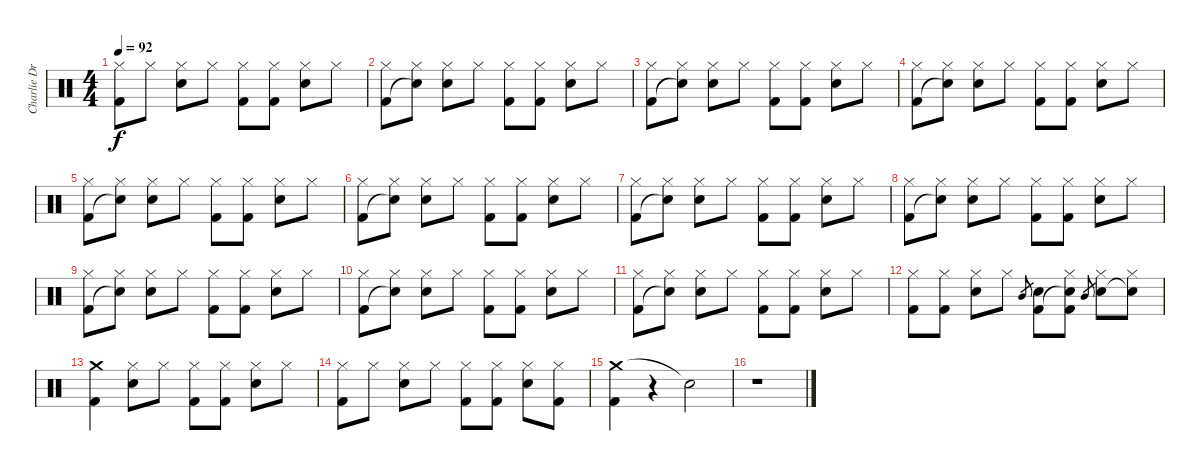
\track ("Charlie Drums" "Charlie Dr") {instrument percussion}
\staff {score}
\articulation defaults
\ts (4 4)
\tempo 92
\clef neutral
\ks c
("Hi-Hat (closed)" "Kick (hit) 2").8{dy f} "Hi-Hat (closed)".8 ("Hi-Hat (closed)" "Snare (hit) 2").8 "Hi-Hat (closed)".8 ("Hi-Hat (closed)" "Kick (hit) 2").8 ("Hi-Hat (closed)" "Kick (hit) 2").8 ("Hi-Hat (closed)" "Snare (hit) 2").8 "Hi-Hat (closed)".8 |
("Hi-Hat (closed)" "Kick (hit) 2").8 ("Hi-Hat (closed)" "Snare (hit)"{t}).8 ("Hi-Hat (closed)" "Snare (hit) 2").8 "Hi-Hat (closed)".8 ("Hi-Hat (closed)" "Kick (hit) 2").8 ("Hi-Hat (closed)" "Kick (hit) 2").8 ("Hi-Hat (closed)" "Snare (hit) 2").8 "Hi-Hat (closed)".8 |
("Hi-Hat (closed)" "Kick (hit) 2").8 ("Hi-Hat (closed)" "Snare (hit)"{t}).8 ("Hi-Hat (closed)" "Snare (hit) 2").8 "Hi-Hat (closed)".8 ("Hi-Hat (closed)" "Kick (hit) 2").8 ("Hi-Hat (closed)" "Kick (hit) 2").8 ("Hi-Hat (closed)" "Snare (hit) 2").8 "Hi-Hat (closed)".8 |
("Hi-Hat (closed)" "Kick (hit) 2").8 ("Hi-Hat (closed)" "Snare (hit)"{t}).8 ("Hi-Hat (closed)" "Snare (hit) 2").8 "Hi-Hat (closed)".8 ("Hi-Hat (closed)" "Kick (hit) 2").8 ("Hi-Hat (closed)" "Kick (hit) 2").8 ("Hi-Hat (closed)" "Snare (hit) 2").8 "Hi-Hat (closed)".8 |
("Hi-Hat (closed)" "Kick (hit) 2").8 ("Hi-Hat (closed)" "Snare (hit)"{t}).8 ("Hi-Hat (closed)" "Snare (hit) 2").8 "Hi-Hat (closed)".8 ("Hi-Hat (closed)" "Kick (hit) 2").8 ("Hi-Hat (closed)" "Kick (hit) 2").8 ("Hi-Hat (closed)" "Snare (hit) 2").8 "Hi-Hat (closed)".8 |
("Hi-Hat (closed)" "Kick (hit) 2").8 ("Hi-Hat (closed)" "Snare (hit)"{t}).8 ("Hi-Hat (closed)" "Snare (hit) 2").8 "Hi-Hat (closed)".8 ("Hi-Hat (closed)" "Kick (hit) 2").8 ("Hi-Hat (closed)" "Kick (hit) 2").8 ("Hi-Hat (closed)" "Snare (hit) 2").8 "Hi-Hat (closed)".8 |
("Hi-Hat (closed)" "Kick (hit) 2").8 ("Hi-Hat (closed)" "Snare (hit)"{t}).8 ("Hi-Hat (closed)" "Snare (hit) 2").8 "Hi-Hat (closed)".8 ("Hi-Hat (closed)" "Kick (hit) 2").8 ("Hi-Hat (closed)" "Kick (hit) 2").8 ("Hi-Hat (closed)" "Snare (hit) 2").8 "Hi-Hat (closed)".8 |
("Hi-Hat (closed)" "Kick (hit) 2").8 ("Hi-Hat (closed)" "Snare (hit)"{t}).8 ("Hi-Hat (closed)" "Snare (hit) 2").8 "Hi-Hat (closed)".8 ("Hi-Hat (closed)" "Kick (hit) 2").8 ("Hi-Hat (closed)" "Kick (hit) 2").8 ("Hi-Hat (closed)" "Snare (hit) 2").8 "Hi-Hat (closed)".8 |
("Hi-Hat (closed)" "Kick (hit) 2").8 ("Hi-Hat (closed)" "Snare (hit)"{t}).8 ("Hi-Hat (closed)" "Snare (hit) 2").8 "Hi-Hat (closed)".8 ("Hi-Hat (closed)" "Kick (hit) 2").8 ("Hi-Hat (closed)" "Kick (hit) 2").8 ("Hi-Hat (closed)" "Snare (hit) 2").8 "Hi-Hat (closed)".8 |
("Hi-Hat (closed)" "Kick (hit) 2").8 ("Hi-Hat (closed)" "Snare (hit)"{t}).8 ("Hi-Hat (closed)" "Snare (hit) 2").8 "Hi-Hat (closed)".8 ("Hi-Hat (closed)" "Kick (hit) 2").8 ("Hi-Hat (closed)" "Kick (hit) 2").8 ("Hi-Hat (closed)" "Snare (hit) 2").8 "Hi-Hat (closed)".8 |
("Hi-Hat (closed)" "Kick (hit) 2").8 ("Hi-Hat (closed)" "Snare (hit)"{t}).8 ("Hi-Hat (closed)" "Snare (hit) 2").8 "Hi-Hat (closed)".8 ("Hi-Hat (closed)" "Kick (hit) 2").8 ("Hi-Hat (closed)" "Kick (hit) 2").8 ("Hi-Hat (closed)" "Snare (hit) 2").8 "Hi-Hat (closed)".8 |
("Hi-Hat (closed)" "Kick (hit) 2").8 ("Hi-Hat (closed)" "Kick (hit) 2").8 ("Hi-Hat (closed)" "Snare (hit) 2").8 "Hi-Hat (closed)".8 "Mid Tom (hit)".8{gr} ("Snare (hit) 2" "Kick (hit) 2").8 ("Hi-Hat (closed)" "Snare (hit)"{t} "Kick (hit) 2").8 "Mid Tom (hit)".8{gr} ("Hi-Hat (closed)" "Snare (hit) 2").8 ("Hi-Hat (closed)" "Snare (hit)"{t}).8 |
("Crash medium (hit)" "Kick (hit) 2").4 ("Hi-Hat (closed)" "Snare (hit) 2").8 "Hi-Hat (closed)".8 ("Hi-Hat (closed)" "Kick (hit) 2").8 ("Hi-Hat (closed)" "Kick (hit) 2").8 ("Hi-Hat (closed)" "Snare (hit) 2").8 "Hi-Hat (closed)".8 |
("Hi-Hat (closed)" "Kick (hit) 2").8 "Hi-Hat (closed)".8 ("Hi-Hat (closed)" "Snare (hit) 2").8 "Hi-Hat (closed)".8 ("Hi-Hat (closed)" "Kick (hit) 2").8 ("Hi-Hat (closed)" "Kick (hit) 2").8 ("Hi-Hat (closed)" "Snare (hit) 2").8 ("Hi-Hat (closed)" "Kick (hit) 2").8 |
("Crash medium (hit)" "Kick (hit) 2").4 r.4 "Snare (hit)"{t}.2 |
r.1
